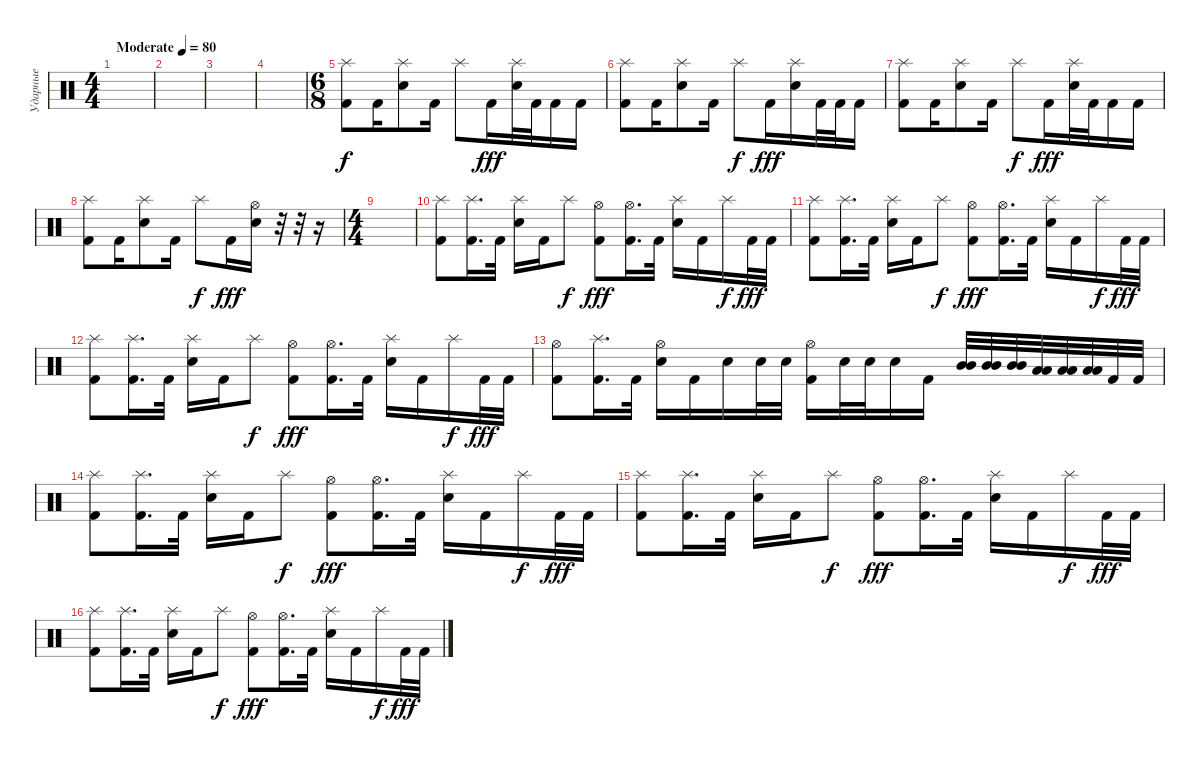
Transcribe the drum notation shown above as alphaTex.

\track ("Ударные" "Ударные") {instrument percussion}
\staff {score}
\articulation defaults
\ts (4 4)
\tempo (80 "Moderate")
\clef neutral
\ks c
|
|
|
|
\ts (6 8)
("Splash (hit)" "Kick (hit) 2").8 "Kick (hit) 2".16 ("Splash (hit)" "Electric Snare (hit)").8 "Kick (hit) 2".16 "Splash (hit)".8{dy f} "Kick (hit) 2".16{dy fff} ("Splash (hit)" "Electric Snare (hit)").32 "Kick (hit) 2".32 "Kick (hit) 2".16 "Kick (hit) 2".16 |
("Splash (hit)" "Kick (hit) 2").8 "Kick (hit) 2".16 ("Splash (hit)" "Electric Snare (hit)").8 "Kick (hit) 2".16 "Splash (hit)".8{dy f} "Kick (hit) 2".16{dy fff} ("Splash (hit)" "Electric Snare (hit)").16 "Kick (hit) 2".32 "Kick (hit) 2".32 "Kick (hit) 2".16 |
("Splash (hit)" "Kick (hit) 2").8 "Kick (hit) 2".16 ("Splash (hit)" "Electric Snare (hit)").8 "Kick (hit) 2".16 "Splash (hit)".8{dy f} "Kick (hit) 2".16{dy fff} ("Splash (hit)" "Electric Snare (hit)").32 "Kick (hit) 2".32 "Kick (hit) 2".16 "Kick (hit) 2".16 |
("Splash (hit)" "Kick (hit) 2").8 "Kick (hit) 2".16 ("Splash (hit)" "Electric Snare (hit)").8 "Kick (hit) 2".16 "Splash (hit)".8{dy f} "Kick (hit) 2".16{dy fff} ("Hi-Hat (open)" "Electric Snare (hit)").16 r.32 r.32 r.16 |
\ts (4 4)
|
("Splash (hit)" "Kick (hit) 2").8 ("Splash (hit)" "Kick (hit) 2").16{d} "Kick (hit) 2".32 ("Splash (hit)" "Electric Snare (hit)").16 "Kick (hit) 2".16 "Splash (hit)".8{dy f} ("Hi-Hat (open)" "Kick (hit) 2").8{dy fff} ("Hi-Hat (open)" "Kick (hit) 2").16{d} "Kick (hit) 2".32 ("Splash (hit)" "Electric Snare (hit)").16 "Kick (hit) 2".16 "Splash (hit)".16{dy f} "Kick (hit) 2".32{dy fff} "Kick (hit) 2".32 |
("Splash (hit)" "Kick (hit) 2").8 ("Splash (hit)" "Kick (hit) 2").16{d} "Kick (hit) 2".32 ("Splash (hit)" "Electric Snare (hit)").16 "Kick (hit) 2".16 "Splash (hit)".8{dy f} ("Hi-Hat (open)" "Kick (hit) 2").8{dy fff} ("Hi-Hat (open)" "Kick (hit) 2").16{d} "Kick (hit) 2".32 ("Splash (hit)" "Electric Snare (hit)").16 "Kick (hit) 2".16 "Splash (hit)".16{dy f} "Kick (hit) 2".32{dy fff} "Kick (hit) 2".32 |
("Splash (hit)" "Kick (hit) 2").8 ("Splash (hit)" "Kick (hit) 2").16{d} "Kick (hit) 2".32 ("Splash (hit)" "Electric Snare (hit)").16 "Kick (hit) 2".16 "Splash (hit)".8{dy f} ("Hi-Hat (open)" "Kick (hit) 2").8{dy fff} ("Hi-Hat (open)" "Kick (hit) 2").16{d} "Kick (hit) 2".32 ("Splash (hit)" "Electric Snare (hit)").16 "Kick (hit) 2".16 "Splash (hit)".16{dy f} "Kick (hit) 2".32{dy fff} "Kick (hit) 2".32 |
("Hi-Hat (open)" "Kick (hit) 2").8 ("Splash (hit)" "Kick (hit) 2").16{d} "Kick (hit) 2".32 ("Hi-Hat (open)" "Electric Snare (hit)").16 "Kick (hit) 2".16 "Electric Snare (hit)".16 "Electric Snare (hit)".32 "Electric Snare (hit)".32 ("Hi-Hat (open)" "Kick (hit) 2").16 "Electric Snare (hit)".32 "Electric Snare (hit)".32 "Electric Snare (hit)".16 "Kick (hit) 2".16 ("Mid Tom (hit)" "Mid Tom (hit)").32 ("Mid Tom (hit)" "Mid Tom (hit)").32 ("Mid Tom (hit)" "Mid Tom (hit)").32 ("Low Tom (hit)" "Low Tom (hit)").32 ("Low Tom (hit)" "Low Tom (hit)").32 ("Low Tom (hit)" "Low Tom (hit)").32 "Kick (hit) 2".32 "Kick (hit) 2".32 |
("Splash (hit)" "Kick (hit) 2").8 ("Splash (hit)" "Kick (hit) 2").16{d} "Kick (hit) 2".32 ("Splash (hit)" "Electric Snare (hit)").16 "Kick (hit) 2".16 "Splash (hit)".8{dy f} ("Hi-Hat (open)" "Kick (hit) 2").8{dy fff} ("Hi-Hat (open)" "Kick (hit) 2").16{d} "Kick (hit) 2".32 ("Splash (hit)" "Electric Snare (hit)").16 "Kick (hit) 2".16 "Splash (hit)".16{dy f} "Kick (hit) 2".32{dy fff} "Kick (hit) 2".32 |
("Splash (hit)" "Kick (hit) 2").8 ("Splash (hit)" "Kick (hit) 2").16{d} "Kick (hit) 2".32 ("Splash (hit)" "Electric Snare (hit)").16 "Kick (hit) 2".16 "Splash (hit)".8{dy f} ("Hi-Hat (open)" "Kick (hit) 2").8{dy fff} ("Hi-Hat (open)" "Kick (hit) 2").16{d} "Kick (hit) 2".32 ("Splash (hit)" "Electric Snare (hit)").16 "Kick (hit) 2".16 "Splash (hit)".16{dy f} "Kick (hit) 2".32{dy fff} "Kick (hit) 2".32 |
("Splash (hit)" "Kick (hit) 2").8 ("Splash (hit)" "Kick (hit) 2").16{d} "Kick (hit) 2".32 ("Splash (hit)" "Electric Snare (hit)").16 "Kick (hit) 2".16 "Splash (hit)".8{dy f} ("Hi-Hat (open)" "Kick (hit) 2").8{dy fff} ("Hi-Hat (open)" "Kick (hit) 2").16{d} "Kick (hit) 2".32 ("Splash (hit)" "Electric Snare (hit)").16 "Kick (hit) 2".16 "Splash (hit)".16{dy f} "Kick (hit) 2".32{dy fff} "Kick (hit) 2".32
